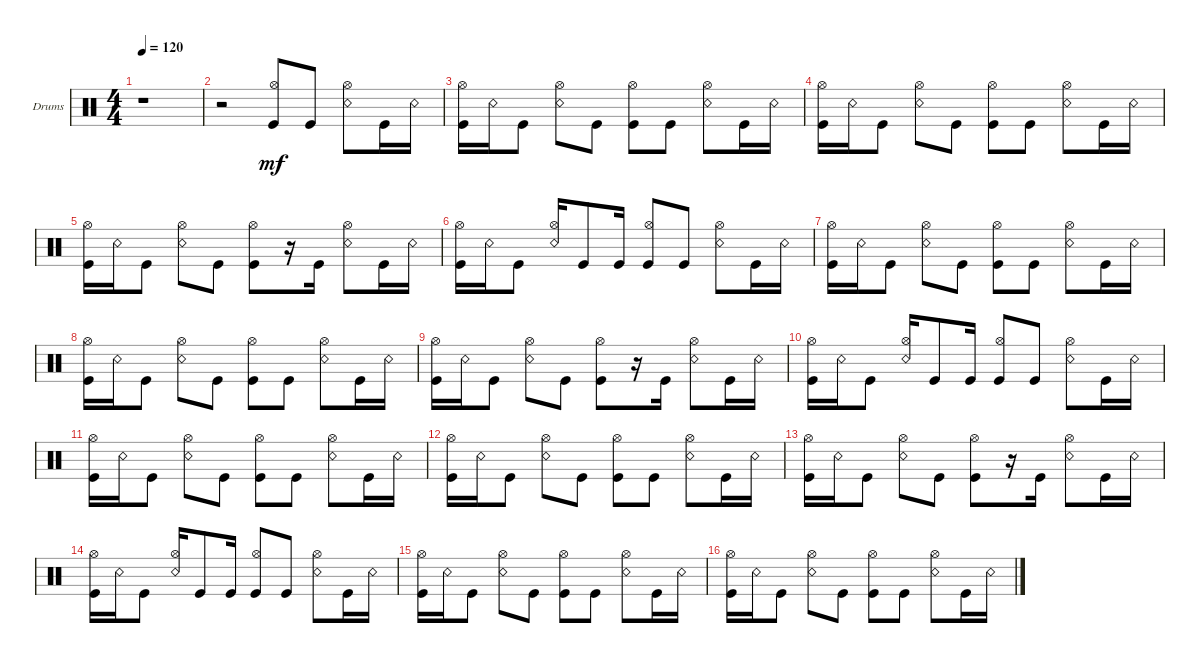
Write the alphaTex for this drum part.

\defaultSystemsLayout 4
\bracketExtendMode groupsimilarinstruments
\firstSystemTrackNameOrientation horizontal
\otherSystemsTrackNameOrientation horizontal
\track ("Drumkit" "Drums") {instrument percussion}
\staff {score}
\articulation defaults
\ts (4 4)
\tempo 120
\clef neutral
\scale
0.333333
\ks c
r.1{dy mf} |
\scale
0.333333 r.2 ("Kick (hit)" "Hi-Hat (open)").8{beam invert} "Kick (hit)".8 ("Snare (rim shot)" "Hi-Hat (open)").8 "Kick (hit)".16 "Snare (rim shot)".16 |
\scale
0.333333 ("Hi-Hat (open)" "Kick (hit)").16 "Snare (rim shot)".16 "Kick (hit)".8 ("Hi-Hat (open)" "Snare (rim shot)").8 "Kick (hit)".8 ("Kick (hit)" "Hi-Hat (open)").8 "Kick (hit)".8 ("Snare (rim shot)" "Hi-Hat (open)").8 "Kick (hit)".16 "Snare (rim shot)".16 |
\scale
0.333333 ("Hi-Hat (open)" "Kick (hit)").16 "Snare (rim shot)".16 "Kick (hit)".8 ("Hi-Hat (open)" "Snare (rim shot)").8 "Kick (hit)".8 ("Kick (hit)" "Hi-Hat (open)").8 "Kick (hit)".8 ("Snare (rim shot)" "Hi-Hat (open)").8 "Kick (hit)".16 "Snare (rim shot)".16 |
\scale
0.333333 ("Kick (hit)" "Hi-Hat (open)").16 "Snare (rim shot)".16 "Kick (hit)".8 ("Hi-Hat (open)" "Snare (rim shot)").8 "Kick (hit)".8 ("Kick (hit)" "Hi-Hat (open)").8 r.16 "Kick (hit)".16 ("Hi-Hat (open)" "Snare (rim shot)").8 "Kick (hit)".16 "Snare (rim shot)".16 |
\scale
0.333333 ("Hi-Hat (open)" "Kick (hit)").16 "Snare (rim shot)".16 "Kick (hit)".8 ("Hi-Hat (open)" "Snare (rim shot)").16 "Kick (hit)".8 "Kick (hit)".16 ("Hi-Hat (open)" "Kick (hit)").8{beam invert} "Kick (hit)".8 ("Hi-Hat (open)" "Snare (rim shot)").8 "Kick (hit)".16 "Snare (rim shot)".16 |
\scale
0.333333 ("Kick (hit)" "Hi-Hat (open)").16 "Snare (rim shot)".16 "Kick (hit)".8 ("Hi-Hat (open)" "Snare (rim shot)").8 "Kick (hit)".8 ("Kick (hit)" "Hi-Hat (open)").8 "Kick (hit)".8 ("Hi-Hat (open)" "Snare (rim shot)").8 "Kick (hit)".16 "Snare (rim shot)".16 |
\scale
0.333333 ("Kick (hit)" "Hi-Hat (open)").16 "Snare (rim shot)".16 "Kick (hit)".8 ("Hi-Hat (open)" "Snare (rim shot)").8 "Kick (hit)".8 ("Kick (hit)" "Hi-Hat (open)").8 "Kick (hit)".8 ("Hi-Hat (open)" "Snare (rim shot)").8 "Kick (hit)".16 "Snare (rim shot)".16 |
\scale
0.333333 ("Kick (hit)" "Hi-Hat (open)").16 "Snare (rim shot)".16 "Kick (hit)".8 ("Hi-Hat (open)" "Snare (rim shot)").8 "Kick (hit)".8 ("Kick (hit)" "Hi-Hat (open)").8 r.16 "Kick (hit)".16 ("Hi-Hat (open)" "Snare (rim shot)").8 "Kick (hit)".16 "Snare (rim shot)".16 |
\scale
0.333333 ("Hi-Hat (open)" "Kick (hit)").16 "Snare (rim shot)".16 "Kick (hit)".8 ("Hi-Hat (open)" "Snare (rim shot)").16 "Kick (hit)".8 "Kick (hit)".16 ("Hi-Hat (open)" "Kick (hit)").8{beam invert} "Kick (hit)".8 ("Hi-Hat (open)" "Snare (rim shot)").8 "Kick (hit)".16 "Snare (rim shot)".16 |
\scale
0.333333 ("Hi-Hat (open)" "Kick (hit)").16 "Snare (rim shot)".16 "Kick (hit)".8 ("Hi-Hat (open)" "Snare (rim shot)").8 "Kick (hit)".8 ("Kick (hit)" "Hi-Hat (open)").8 "Kick (hit)".8 ("Snare (rim shot)" "Hi-Hat (open)").8 "Kick (hit)".16 "Snare (rim shot)".16 |
\scale
0.333333 ("Hi-Hat (open)" "Kick (hit)").16 "Snare (rim shot)".16 "Kick (hit)".8 ("Hi-Hat (open)" "Snare (rim shot)").8 "Kick (hit)".8 ("Kick (hit)" "Hi-Hat (open)").8 "Kick (hit)".8 ("Snare (rim shot)" "Hi-Hat (open)").8 "Kick (hit)".16 "Snare (rim shot)".16 |
\scale
0.333333 ("Kick (hit)" "Hi-Hat (open)").16 "Snare (rim shot)".16 "Kick (hit)".8 ("Hi-Hat (open)" "Snare (rim shot)").8 "Kick (hit)".8 ("Kick (hit)" "Hi-Hat (open)").8 r.16 "Kick (hit)".16 ("Hi-Hat (open)" "Snare (rim shot)").8 "Kick (hit)".16 "Snare (rim shot)".16 |
\scale
0.333333 ("Hi-Hat (open)" "Kick (hit)").16 "Snare (rim shot)".16 "Kick (hit)".8 ("Hi-Hat (open)" "Snare (rim shot)").16 "Kick (hit)".8 "Kick (hit)".16 ("Hi-Hat (open)" "Kick (hit)").8{beam invert} "Kick (hit)".8 ("Hi-Hat (open)" "Snare (rim shot)").8 "Kick (hit)".16 "Snare (rim shot)".16 |
\scale
0.333333 ("Hi-Hat (open)" "Kick (hit)").16 "Snare (rim shot)".16 "Kick (hit)".8 ("Hi-Hat (open)" "Snare (rim shot)").8 "Kick (hit)".8 ("Kick (hit)" "Hi-Hat (open)").8 "Kick (hit)".8 ("Snare (rim shot)" "Hi-Hat (open)").8 "Kick (hit)".16 "Snare (rim shot)".16 |
\scale
0.333333 ("Hi-Hat (open)" "Kick (hit)").16 "Snare (rim shot)".16 "Kick (hit)".8 ("Hi-Hat (open)" "Snare (rim shot)").8 "Kick (hit)".8 ("Kick (hit)" "Hi-Hat (open)").8 "Kick (hit)".8 ("Snare (rim shot)" "Hi-Hat (open)").8 "Kick (hit)".16 "Snare (rim shot)".16
